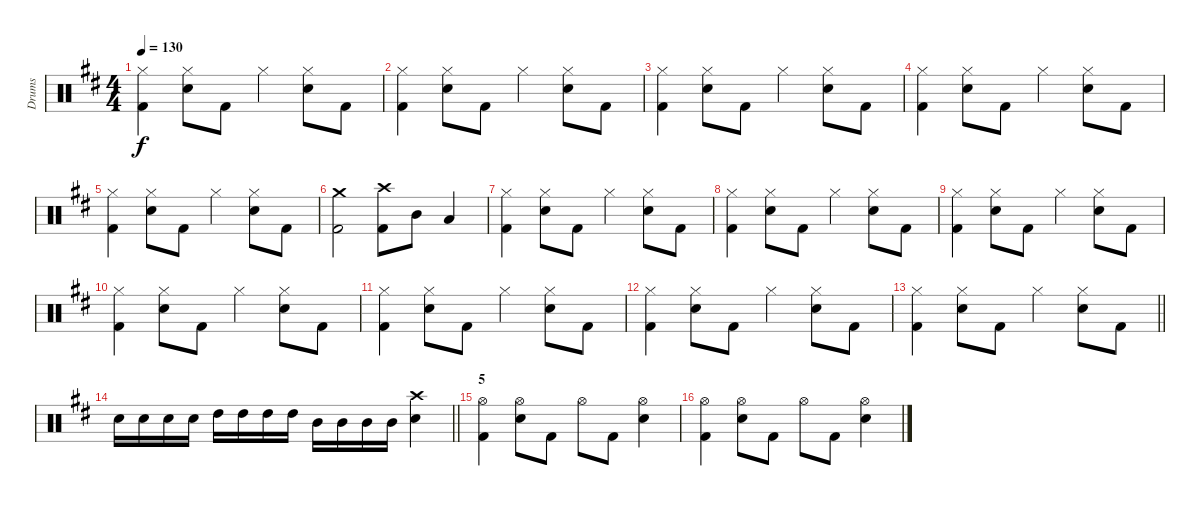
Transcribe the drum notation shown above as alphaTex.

\track ("Drums" "Drums") {instrument percussion}
\staff {score}
\articulation defaults
\ts (4 4)
\tempo 130
\clef neutral
\ks d
("Kick (hit) 2" "Hi-Hat (closed)").4{dy f} ("Electric Snare (hit)" "Hi-Hat (closed)").8 "Kick (hit) 2".8 "Hi-Hat (closed)".4 ("Electric Snare (hit)" "Hi-Hat (closed)").8 "Kick (hit) 2".8 |
("Kick (hit) 2" "Hi-Hat (closed)").4 ("Electric Snare (hit)" "Hi-Hat (closed)").8 "Kick (hit) 2".8 "Hi-Hat (closed)".4 ("Electric Snare (hit)" "Hi-Hat (closed)").8 "Kick (hit) 2".8 |
("Kick (hit) 2" "Hi-Hat (closed)").4 ("Electric Snare (hit)" "Hi-Hat (closed)").8 "Kick (hit) 2".8 "Hi-Hat (closed)".4 ("Electric Snare (hit)" "Hi-Hat (closed)").8 "Kick (hit) 2".8 |
("Kick (hit) 2" "Hi-Hat (closed)").4 ("Electric Snare (hit)" "Hi-Hat (closed)").8 "Kick (hit) 2".8 "Hi-Hat (closed)".4 ("Electric Snare (hit)" "Hi-Hat (closed)").8 "Kick (hit) 2".8 |
("Kick (hit) 2" "Hi-Hat (closed)").4 ("Electric Snare (hit)" "Hi-Hat (closed)").8 "Kick (hit) 2".8 "Hi-Hat (closed)".4 ("Electric Snare (hit)" "Hi-Hat (closed)").8 "Kick (hit) 2".8 |
("Kick (hit) 2" "Crash medium (hit)").2 ("Kick (hit) 2" "Crash high (hit)").8 "Mid Tom (hit)".8 "Low Tom (hit)".4 |
("Kick (hit) 2" "Hi-Hat (closed)").4 ("Electric Snare (hit)" "Hi-Hat (closed)").8 "Kick (hit) 2".8 "Hi-Hat (closed)".4 ("Electric Snare (hit)" "Hi-Hat (closed)").8 "Kick (hit) 2".8 |
("Kick (hit) 2" "Hi-Hat (closed)").4 ("Electric Snare (hit)" "Hi-Hat (closed)").8 "Kick (hit) 2".8 "Hi-Hat (closed)".4 ("Electric Snare (hit)" "Hi-Hat (closed)").8 "Kick (hit) 2".8 |
("Kick (hit) 2" "Hi-Hat (closed)").4 ("Electric Snare (hit)" "Hi-Hat (closed)").8 "Kick (hit) 2".8 "Hi-Hat (closed)".4 ("Electric Snare (hit)" "Hi-Hat (closed)").8 "Kick (hit) 2".8 |
("Kick (hit) 2" "Hi-Hat (closed)").4 ("Electric Snare (hit)" "Hi-Hat (closed)").8 "Kick (hit) 2".8 "Hi-Hat (closed)".4 ("Electric Snare (hit)" "Hi-Hat (closed)").8 "Kick (hit) 2".8 |
("Kick (hit) 2" "Hi-Hat (closed)").4 ("Electric Snare (hit)" "Hi-Hat (closed)").8 "Kick (hit) 2".8 "Hi-Hat (closed)".4 ("Electric Snare (hit)" "Hi-Hat (closed)").8 "Kick (hit) 2".8 |
("Kick (hit) 2" "Hi-Hat (closed)").4 ("Electric Snare (hit)" "Hi-Hat (closed)").8 "Kick (hit) 2".8 "Hi-Hat (closed)".4 ("Electric Snare (hit)" "Hi-Hat (closed)").8 "Kick (hit) 2".8 |
\barLineRight lightlight
("Kick (hit) 2" "Hi-Hat (closed)").4 ("Electric Snare (hit)" "Hi-Hat (closed)").8 "Kick (hit) 2".8 "Hi-Hat (closed)".4 ("Electric Snare (hit)" "Hi-Hat (closed)").8 "Kick (hit) 2".8 |
\barLineRight lightlight "Electric Snare (hit)".16 "Electric Snare (hit)".16 "Electric Snare (hit)".16 "Electric Snare (hit)".16 "High Tom (hit)".16 "High Tom (hit)".16 "High Tom (hit)".16 "High Tom (hit)".16 "Mid Tom (hit)".16 "Mid Tom (hit)".16 "Mid Tom (hit)".16 "Mid Tom (hit)".16
("Crash high (hit)" "Electric Snare (hit)").4 |
\section ("" "5")
("Kick (hit) 2" "Hi-Hat (open)").4 ("Hi-Hat (open)" "Electric Snare (hit)").8 "Kick (hit) 2".8 "Hi-Hat (open)".8 "Kick (hit) 2".8 ("Electric Snare (hit)" "Hi-Hat (open)").4 |
("Kick (hit) 2" "Hi-Hat (open)").4 ("Hi-Hat (open)" "Electric Snare (hit)").8 "Kick (hit) 2".8 "Hi-Hat (open)".8 "Kick (hit) 2".8 ("Electric Snare (hit)" "Hi-Hat (open)").4
